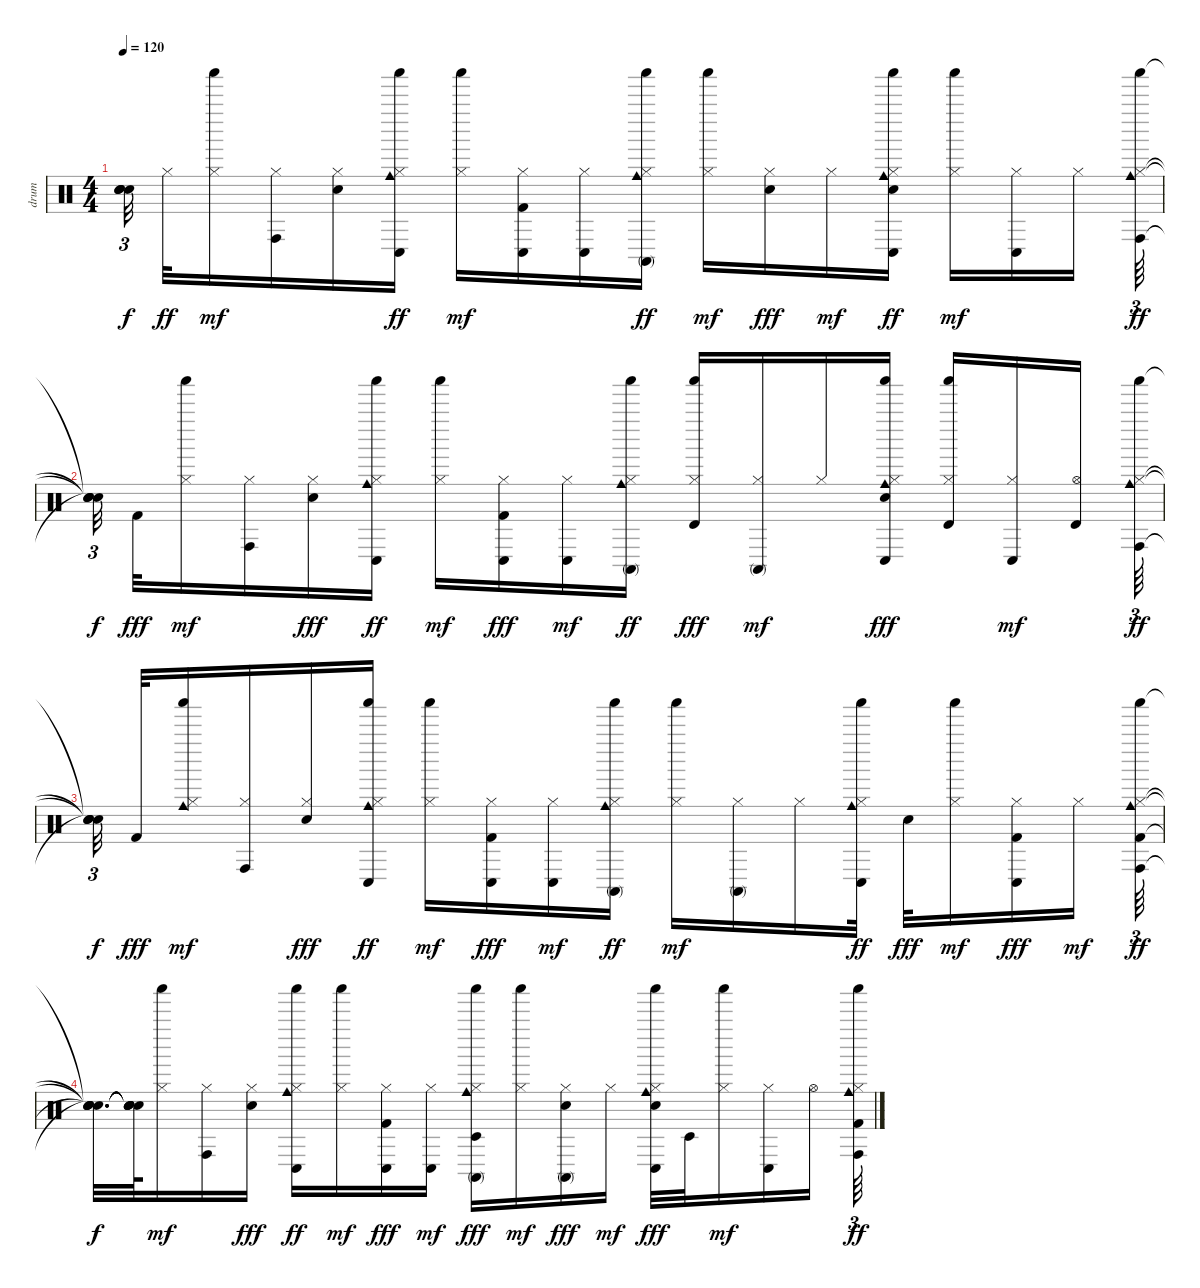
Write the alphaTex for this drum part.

\track ("drum" "drum") {instrument percussion}
\staff {score}
\articulation defaults
\ts (4 4)
\tempo 120
\clef neutral
\ks c
("Snare (hit)"{t} "Snare (hit)"{t} "Snare (hit)"{t} "Snare (hit)"{t}).32{tu (3 2) dy f beam splitsecondary} "Hi-Hat (closed)".32{dy ff} ("Shaker (hit)" "Hi-Hat (closed)").16{dy mf} ("Conga high (hit)" "Hi-Hat (closed)").16 ("Electric Snare (hit)" "Hi-Hat (closed)").16 ("Cowbell medium (hit)" "Conga low (hit)" "Shaker (hit)" "Hi-Hat (closed)").16{dy ff} ("Shaker (hit)" "Hi-Hat (closed)").16{dy mf} ("Conga low (hit)" "Kick (hit) 2" "Hi-Hat (closed)").16 ("Conga low (hit)" "Hi-Hat (closed)").16 ("Conga high (mute)" "Cowbell medium (hit)" "Shaker (hit)" "Hi-Hat (closed)").16{dy ff} ("Shaker (hit)" "Hi-Hat (closed)").16{dy mf} ("Hi-Hat (closed)" "Electric Snare (hit)").16{dy fff} "Hi-Hat (closed)".16{dy mf} ("Conga low (hit)" "Shaker (hit)" "Cowbell medium (hit)" "Electric Snare (hit)" "Hi-Hat (closed)").16{dy ff} ("Shaker (hit)" "Hi-Hat (closed)").16{dy mf} ("Conga low (hit)" "Hi-Hat (closed)").16 "Hi-Hat (closed)".16{beam splitsecondary} ("Conga high (hit)" "Shaker (hit)" "Cowbell medium (hit)" "Hi-Hat (closed)").64{tu (3 2) dy ff} |
("Snare (hit)"{t} "Snare (hit)"{t} "Snare (hit)"{t} "Snare (hit)"{t}).32{tu (3 2) dy f beam splitsecondary} "Kick (hit) 2".32{dy fff} ("Shaker (hit)" "Hi-Hat (closed)").16{dy mf} ("Conga high (hit)" "Hi-Hat (closed)").16 ("Hi-Hat (closed)" "Electric Snare (hit)").16{dy fff} ("Conga low (hit)" "Cowbell medium (hit)" "Shaker (hit)" "Hi-Hat (closed)").16{dy ff} ("Shaker (hit)" "Hi-Hat (closed)").16{dy mf} ("Conga low (hit)" "Hi-Hat (closed)" "Kick (hit) 2").16{dy fff} ("Conga low (hit)" "Hi-Hat (closed)").16{dy mf} ("Conga high (mute)" "Cowbell medium (hit)" "Shaker (hit)" "Hi-Hat (closed)").16{dy ff} ("Hi-Hat (closed)" "Shaker (hit)" "Timbale high (hit)").16{dy fff} ("Conga high (mute)" "Hi-Hat (closed)").16{dy mf} "Hi-Hat (closed)".16 ("Conga low (hit)" "Cowbell medium (hit)" "Shaker (hit)" "Hi-Hat (closed)" "Electric Snare (hit)").16{dy fff} ("Shaker (hit)" "Hi-Hat (closed)" "Timbale high (hit)").16 ("Conga low (hit)" "Hi-Hat (closed)").16{dy mf} ("Timbale high (hit)" "Hi-Hat (open)").16{beam splitsecondary} ("Conga high (hit)" "Shaker (hit)" "Cowbell medium (hit)" "Hi-Hat (closed)").64{tu (3 2) dy ff} |
("Snare (hit)"{t} "Snare (hit)"{t} "Snare (hit)"{t} "Snare (hit)"{t}).32{tu (3 2) dy f beam splitsecondary} "Kick (hit) 2".32{dy fff} ("Cowbell medium (hit)" "Shaker (hit)" "Hi-Hat (closed)").16{dy mf} ("Conga high (hit)" "Hi-Hat (closed)").16 ("Hi-Hat (closed)" "Electric Snare (hit)").16{dy fff} ("Conga low (hit)" "Cowbell medium (hit)" "Shaker (hit)" "Hi-Hat (closed)").16{dy ff} ("Shaker (hit)" "Hi-Hat (closed)").16{dy mf} ("Conga low (hit)" "Hi-Hat (closed)" "Kick (hit) 2").16{dy fff} ("Conga low (hit)" "Hi-Hat (closed)").16{dy mf} ("Conga high (mute)" "Cowbell medium (hit)" "Shaker (hit)" "Hi-Hat (closed)").16{dy ff} ("Shaker (hit)" "Hi-Hat (closed)").16{dy mf} ("Conga high (mute)" "Hi-Hat (closed)").16 "Hi-Hat (closed)".16 ("Conga low (hit)" "Shaker (hit)" "Cowbell medium (hit)" "Hi-Hat (closed)").32{dy ff} "Electric Snare (hit)".32{dy fff} ("Shaker (hit)" "Hi-Hat (closed)").16{dy mf} ("Conga low (hit)" "Hi-Hat (closed)" "Kick (hit) 2").16{dy fff} "Hi-Hat (closed)".16{dy mf beam splitsecondary} ("Conga high (hit)" "Shaker (hit)" "Cowbell medium (hit)" "Kick (hit) 2" "Hi-Hat (closed)").64{tu (3 2) dy ff} |
("Snare (hit)"{t} "Snare (hit)"{t} "Snare (hit)"{t} "Snare (hit)"{t} "Snare (hit)"{t}).32{d dy f} ("Snare (hit)"{t} "Snare (hit)"{t} "Snare (hit)"{t} "Snare (hit)"{t} "Snare (hit)"{t}).64 ("Shaker (hit)" "Hi-Hat (closed)").16{dy mf} ("Conga high (hit)" "Hi-Hat (closed)").16 ("Hi-Hat (closed)" "Electric Snare (hit)").16{dy fff} ("Conga low (hit)" "Cowbell medium (hit)" "Shaker (hit)" "Hi-Hat (closed)").16{dy ff} ("Shaker (hit)" "Hi-Hat (closed)").16{dy mf} ("Conga low (hit)" "Hi-Hat (closed)" "Kick (hit) 2").16{dy fff} ("Conga low (hit)" "Hi-Hat (closed)").16{dy mf} ("Conga high (mute)" "Cowbell medium (hit)" "Shaker (hit)" "Hi-Hat (closed)" "Timbale low (hit)").16{dy fff} ("Shaker (hit)" "Hi-Hat (closed)").16{dy mf} ("Conga high (mute)" "Hi-Hat (closed)" "Electric Snare (hit)").16{dy fff} "Hi-Hat (closed)".16{dy mf} ("Conga low (hit)" "Hi-Hat (closed)" "Shaker (hit)" "Cowbell medium (hit)" "Electric Snare (hit)").32{dy fff} "Timbale low (hit)".32 ("Shaker (hit)" "Hi-Hat (closed)").16{dy mf} ("Conga low (hit)" "Hi-Hat (closed)").16 "Hi-Hat (open)".16 ("Conga high (hit)" "Shaker (hit)" "Cowbell medium (hit)" "Kick (hit) 2" "Hi-Hat (closed)").64{tu (3 2) dy ff}
